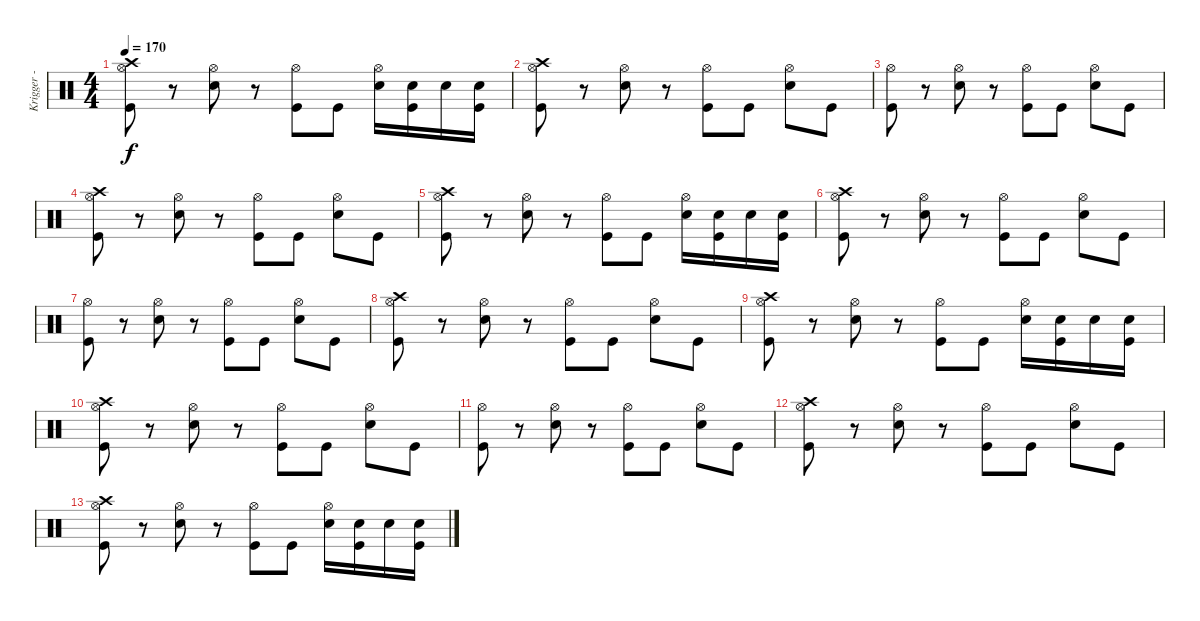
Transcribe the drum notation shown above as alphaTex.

\track ("Krigger - Drums" "Krigger - ") {instrument percussion}
\staff {score}
\articulation defaults
\ts (4 4)
\tempo 170
\clef neutral
\ks c
("Hi-Hat (open)" "Crash high (hit)" "Kick (hit)").8{dy f} r.8 ("Hi-Hat (open)" "Snare (hit) 2").8 r.8 ("Hi-Hat (open)" "Kick (hit)").8 "Kick (hit)".8 ("Hi-Hat (open)" "Snare (hit) 2").16 ("Snare (hit) 2" "Kick (hit)").16 "Snare (hit) 2".16 ("Snare (hit) 2" "Kick (hit)").16 |
("Hi-Hat (open)" "Crash high (hit)" "Kick (hit)").8 r.8 ("Hi-Hat (open)" "Snare (hit) 2").8 r.8 ("Hi-Hat (open)" "Kick (hit)").8 "Kick (hit)".8 ("Hi-Hat (open)" "Snare (hit) 2").8 "Kick (hit)".8 |
("Hi-Hat (open)" "Kick (hit)").8 r.8 ("Hi-Hat (open)" "Snare (hit) 2").8 r.8 ("Hi-Hat (open)" "Kick (hit)").8 "Kick (hit)".8 ("Hi-Hat (open)" "Snare (hit) 2").8 "Kick (hit)".8 |
("Hi-Hat (open)" "Crash high (hit)" "Kick (hit)").8 r.8 ("Hi-Hat (open)" "Snare (hit) 2").8 r.8 ("Hi-Hat (open)" "Kick (hit)").8 "Kick (hit)".8 ("Hi-Hat (open)" "Snare (hit) 2").8 "Kick (hit)".8 |
("Hi-Hat (open)" "Crash high (hit)" "Kick (hit)").8 r.8 ("Hi-Hat (open)" "Snare (hit) 2").8 r.8 ("Hi-Hat (open)" "Kick (hit)").8 "Kick (hit)".8 ("Hi-Hat (open)" "Snare (hit) 2").16 ("Snare (hit) 2" "Kick (hit)").16 "Snare (hit) 2".16 ("Snare (hit) 2" "Kick (hit)").16 |
("Hi-Hat (open)" "Crash high (hit)" "Kick (hit)").8 r.8 ("Hi-Hat (open)" "Snare (hit) 2").8 r.8 ("Hi-Hat (open)" "Kick (hit)").8 "Kick (hit)".8 ("Hi-Hat (open)" "Snare (hit) 2").8 "Kick (hit)".8 |
("Hi-Hat (open)" "Kick (hit)").8 r.8 ("Hi-Hat (open)" "Snare (hit) 2").8 r.8 ("Hi-Hat (open)" "Kick (hit)").8 "Kick (hit)".8 ("Hi-Hat (open)" "Snare (hit) 2").8 "Kick (hit)".8 |
("Hi-Hat (open)" "Crash high (hit)" "Kick (hit)").8 r.8 ("Hi-Hat (open)" "Snare (hit) 2").8 r.8 ("Hi-Hat (open)" "Kick (hit)").8 "Kick (hit)".8 ("Hi-Hat (open)" "Snare (hit) 2").8 "Kick (hit)".8 |
("Hi-Hat (open)" "Crash high (hit)" "Kick (hit)").8 r.8 ("Hi-Hat (open)" "Snare (hit) 2").8 r.8 ("Hi-Hat (open)" "Kick (hit)").8 "Kick (hit)".8 ("Hi-Hat (open)" "Snare (hit) 2").16 ("Snare (hit) 2" "Kick (hit)").16 "Snare (hit) 2".16 ("Snare (hit) 2" "Kick (hit)").16 |
("Hi-Hat (open)" "Crash high (hit)" "Kick (hit)").8 r.8 ("Hi-Hat (open)" "Snare (hit) 2").8 r.8 ("Hi-Hat (open)" "Kick (hit)").8 "Kick (hit)".8 ("Hi-Hat (open)" "Snare (hit) 2").8 "Kick (hit)".8 |
("Hi-Hat (open)" "Kick (hit)").8 r.8 ("Hi-Hat (open)" "Snare (hit) 2").8 r.8 ("Hi-Hat (open)" "Kick (hit)").8 "Kick (hit)".8 ("Hi-Hat (open)" "Snare (hit) 2").8 "Kick (hit)".8 |
("Hi-Hat (open)" "Crash high (hit)" "Kick (hit)").8 r.8 ("Hi-Hat (open)" "Snare (hit) 2").8 r.8 ("Hi-Hat (open)" "Kick (hit)").8 "Kick (hit)".8 ("Hi-Hat (open)" "Snare (hit) 2").8 "Kick (hit)".8 |
("Hi-Hat (open)" "Crash high (hit)" "Kick (hit)").8 r.8 ("Hi-Hat (open)" "Snare (hit) 2").8 r.8 ("Hi-Hat (open)" "Kick (hit)").8 "Kick (hit)".8 ("Hi-Hat (open)" "Snare (hit) 2").16 ("Snare (hit) 2" "Kick (hit)").16 "Snare (hit) 2".16 ("Snare (hit) 2" "Kick (hit)").16
